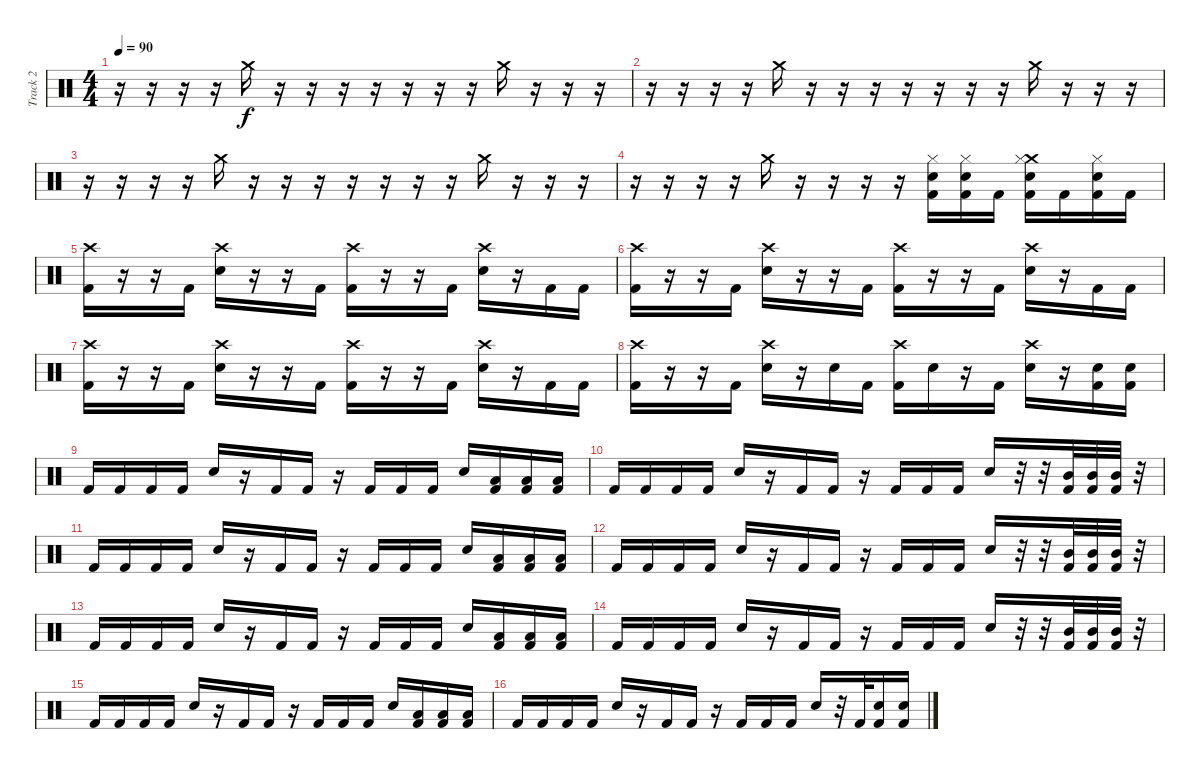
\track ("Track 2" "Track 2") {instrument percussion}
\staff {score}
\articulation defaults
\ts (4 4)
\tempo 90
\clef neutral
\ks c
r.16{dy f} r.16 r.16 r.16 "Crash medium (hit)".16 r.16 r.16 r.16 r.16 r.16 r.16 r.16 "Crash medium (hit)".16 r.16 r.16 r.16 |
r.16 r.16 r.16 r.16 "Crash medium (hit)".16 r.16 r.16 r.16 r.16 r.16 r.16 r.16 "Crash medium (hit)".16 r.16 r.16 r.16 |
r.16 r.16 r.16 r.16 "Crash medium (hit)".16 r.16 r.16 r.16 r.16 r.16 r.16 r.16 "Crash medium (hit)".16 r.16 r.16 r.16 |
r.16 r.16 r.16 r.16 "Crash medium (hit)".16 r.16 r.16 r.16 r.16 ("Kick (hit) 2" "Electric Snare (hit)" "Hi-Hat (closed)").16 ("Kick (hit) 2" "Electric Snare (hit)" "Hi-Hat (closed)").16 "Kick (hit) 2".16 ("Crash medium (hit)" "Kick (hit) 2" "Electric Snare (hit)" "Hi-Hat (closed)").16 "Kick (hit) 2".16 ("Kick (hit) 2" "Electric Snare (hit)" "Hi-Hat (closed)").16 "Kick (hit) 2".16 |
("Kick (hit) 2" "Crash high (hit)").16 r.16 r.16 "Kick (hit) 2".16 ("Electric Snare (hit)" "Crash high (hit)").16 r.16 r.16 "Kick (hit) 2".16 ("Kick (hit) 2" "Crash high (hit)").16 r.16 r.16 "Kick (hit) 2".16 ("Electric Snare (hit)" "Crash high (hit)").16 r.16 "Kick (hit) 2".16 "Kick (hit) 2".16 |
("Kick (hit) 2" "Crash high (hit)").16 r.16 r.16 "Kick (hit) 2".16 ("Electric Snare (hit)" "Crash high (hit)").16 r.16 r.16 "Kick (hit) 2".16 ("Kick (hit) 2" "Crash high (hit)").16 r.16 r.16 "Kick (hit) 2".16 ("Electric Snare (hit)" "Crash high (hit)").16 r.16 "Kick (hit) 2".16 "Kick (hit) 2".16 |
("Kick (hit) 2" "Crash high (hit)").16 r.16 r.16 "Kick (hit) 2".16 ("Electric Snare (hit)" "Crash high (hit)").16 r.16 r.16 "Kick (hit) 2".16 ("Kick (hit) 2" "Crash high (hit)").16 r.16 r.16 "Kick (hit) 2".16 ("Electric Snare (hit)" "Crash high (hit)").16 r.16 "Kick (hit) 2".16 "Kick (hit) 2".16 |
("Kick (hit) 2" "Crash high (hit)").16 r.16 r.16 "Kick (hit) 2".16 ("Electric Snare (hit)" "Crash high (hit)").16 r.16 "Electric Snare (hit)".16 "Kick (hit) 2".16 ("Kick (hit) 2" "Crash high (hit)").16 "Electric Snare (hit)".16 r.16 "Kick (hit) 2".16 ("Electric Snare (hit)" "Crash high (hit)").16 r.16 ("Kick (hit) 2" "Electric Snare (hit)").16 ("Kick (hit) 2" "Electric Snare (hit)").16 |
"Kick (hit) 2".16 "Kick (hit) 2".16 "Kick (hit) 2".16 "Kick (hit) 2".16 "Electric Snare (hit)".16 r.16 "Kick (hit) 2".16 "Kick (hit) 2".16 r.16 "Kick (hit) 2".16 "Kick (hit) 2".16 "Kick (hit) 2".16 "Electric Snare (hit)".16 ("Kick (hit) 2" "Low Tom (hit)").16 ("Kick (hit) 2" "Low Tom (hit)").16 ("Kick (hit) 2" "Low Tom (hit)").16 |
"Kick (hit) 2".16 "Kick (hit) 2".16 "Kick (hit) 2".16 "Kick (hit) 2".16 "Electric Snare (hit)".16 r.16 "Kick (hit) 2".16 "Kick (hit) 2".16 r.16 "Kick (hit) 2".16 "Kick (hit) 2".16 "Kick (hit) 2".16 "Electric Snare (hit)".16 r.32 r.32 ("Kick (hit) 2" "Mid Tom (hit)").32 ("Kick (hit) 2" "Mid Tom (hit)").32 ("Kick (hit) 2" "Mid Tom (hit)").32 r.32 |
"Kick (hit) 2".16 "Kick (hit) 2".16 "Kick (hit) 2".16 "Kick (hit) 2".16 "Electric Snare (hit)".16 r.16 "Kick (hit) 2".16 "Kick (hit) 2".16 r.16 "Kick (hit) 2".16 "Kick (hit) 2".16 "Kick (hit) 2".16 "Electric Snare (hit)".16 ("Kick (hit) 2" "Low Tom (hit)").16 ("Kick (hit) 2" "Low Tom (hit)").16 ("Kick (hit) 2" "Low Tom (hit)").16 |
"Kick (hit) 2".16 "Kick (hit) 2".16 "Kick (hit) 2".16 "Kick (hit) 2".16 "Electric Snare (hit)".16 r.16 "Kick (hit) 2".16 "Kick (hit) 2".16 r.16 "Kick (hit) 2".16 "Kick (hit) 2".16 "Kick (hit) 2".16 "Electric Snare (hit)".16 r.32 r.32 ("Kick (hit) 2" "Mid Tom (hit)").32 ("Kick (hit) 2" "Mid Tom (hit)").32 ("Kick (hit) 2" "Mid Tom (hit)").32 r.32 |
"Kick (hit) 2".16 "Kick (hit) 2".16 "Kick (hit) 2".16 "Kick (hit) 2".16 "Electric Snare (hit)".16 r.16 "Kick (hit) 2".16 "Kick (hit) 2".16 r.16 "Kick (hit) 2".16 "Kick (hit) 2".16 "Kick (hit) 2".16 "Electric Snare (hit)".16 ("Kick (hit) 2" "Low Tom (hit)").16 ("Kick (hit) 2" "Low Tom (hit)").16 ("Kick (hit) 2" "Low Tom (hit)").16 |
"Kick (hit) 2".16 "Kick (hit) 2".16 "Kick (hit) 2".16 "Kick (hit) 2".16 "Electric Snare (hit)".16 r.16 "Kick (hit) 2".16 "Kick (hit) 2".16 r.16 "Kick (hit) 2".16 "Kick (hit) 2".16 "Kick (hit) 2".16 "Electric Snare (hit)".16 r.32 r.32 ("Kick (hit) 2" "Mid Tom (hit)").32 ("Kick (hit) 2" "Mid Tom (hit)").32 ("Kick (hit) 2" "Mid Tom (hit)").32 r.32 |
"Kick (hit) 2".16 "Kick (hit) 2".16 "Kick (hit) 2".16 "Kick (hit) 2".16 "Electric Snare (hit)".16 r.16 "Kick (hit) 2".16 "Kick (hit) 2".16 r.16 "Kick (hit) 2".16 "Kick (hit) 2".16 "Kick (hit) 2".16 "Electric Snare (hit)".16 ("Kick (hit) 2" "Low Tom (hit)").16 ("Kick (hit) 2" "Low Tom (hit)").16 ("Kick (hit) 2" "Low Tom (hit)").16 |
"Kick (hit) 2".16 "Kick (hit) 2".16 "Kick (hit) 2".16 "Kick (hit) 2".16 "Electric Snare (hit)".16 r.16 "Kick (hit) 2".16 "Kick (hit) 2".16 r.16 "Kick (hit) 2".16 "Kick (hit) 2".16 "Kick (hit) 2".16 "Electric Snare (hit)".16 r.32 "Kick (hit) 2".32 ("Kick (hit) 2" "Snare (hit) 2").16 ("Snare (hit) 2" "Kick (hit) 2").16
